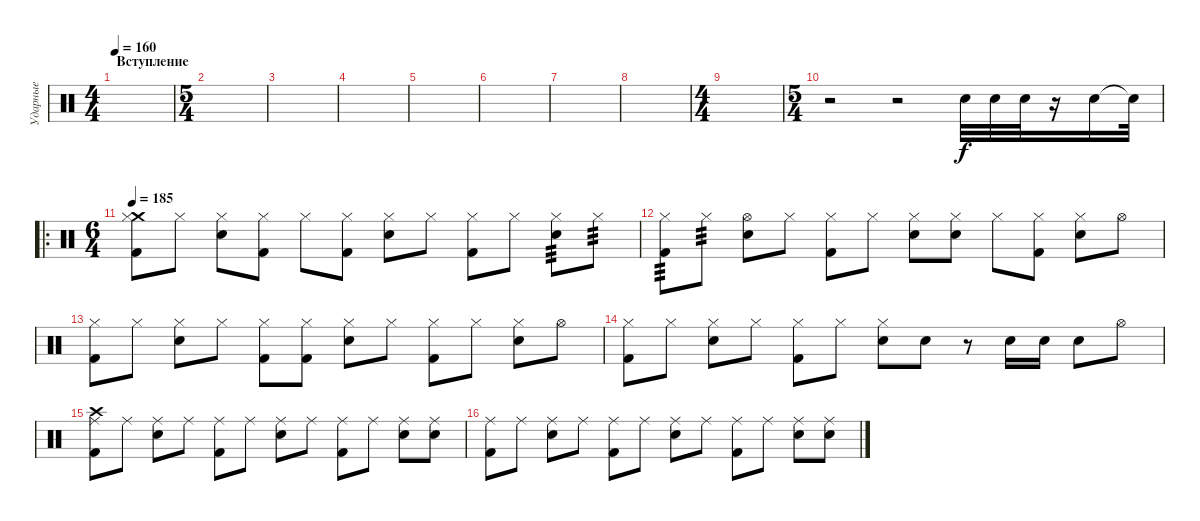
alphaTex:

\track ("Ударные" "Ударные") {instrument percussion}
\staff {score}
\articulation defaults
\ts (4 4)
\section ("" "Вступление")
\tempo 160
\clef neutral
\ks c
|
\ts (5 4)
|
|
|
|
|
|
|
\ts (4 4)
|
\ts (5 4)
r.2 r.2 "Electric Snare (hit)".32 "Electric Snare (hit)".32 "Electric Snare (hit)".32 r.16 "Electric Snare (hit)".16 "Snare (hit)"{t}.32 |
\ro
\ts (6 4)
\tempo 185
("Crash medium (hit)" "Hi-Hat (closed)" "Kick (hit) 2").8 "Hi-Hat (closed)".8 ("Hi-Hat (closed)" "Electric Snare (hit)").8 ("Hi-Hat (closed)" "Kick (hit) 2").8 "Hi-Hat (closed)".8 ("Hi-Hat (closed)" "Kick (hit) 2").8 ("Hi-Hat (closed)" "Electric Snare (hit)").8 "Hi-Hat (closed)".8 ("Hi-Hat (closed)" "Kick (hit) 2").8 "Hi-Hat (closed)".8 ("Hi-Hat (closed)" "Electric Snare (hit)").8{tp 3} "Hi-Hat (closed)".8{tp 3} |
("Hi-Hat (closed)" "Kick (hit) 2").8{tp 3} "Hi-Hat (closed)".8{tp 3} ("Hi-Hat (open)" "Electric Snare (hit)").8 "Hi-Hat (closed)".8 ("Hi-Hat (closed)" "Kick (hit) 2").8 "Hi-Hat (closed)".8 ("Hi-Hat (closed)" "Electric Snare (hit)").8 ("Hi-Hat (closed)" "Electric Snare (hit)").8 "Hi-Hat (closed)".8 ("Hi-Hat (closed)" "Kick (hit) 2").8 ("Hi-Hat (closed)" "Electric Snare (hit)").8 "Hi-Hat (open)".8 |
("Hi-Hat (closed)" "Kick (hit) 2").8 "Hi-Hat (closed)".8 ("Hi-Hat (closed)" "Electric Snare (hit)").8 "Hi-Hat (closed)".8 ("Hi-Hat (closed)" "Kick (hit) 2").8 ("Hi-Hat (closed)" "Kick (hit) 2").8 ("Hi-Hat (closed)" "Electric Snare (hit)").8 "Hi-Hat (closed)".8 ("Hi-Hat (closed)" "Kick (hit) 2").8 "Hi-Hat (closed)".8 ("Hi-Hat (closed)" "Electric Snare (hit)").8 "Hi-Hat (open)".8 |
("Hi-Hat (closed)" "Kick (hit) 2").8 "Hi-Hat (closed)".8 ("Hi-Hat (closed)" "Electric Snare (hit)").8 "Hi-Hat (closed)".8 ("Hi-Hat (closed)" "Kick (hit) 2").8 "Hi-Hat (closed)".8 ("Hi-Hat (closed)" "Electric Snare (hit)").8 "Electric Snare (hit)".8 r.8 "Electric Snare (hit)".16 "Electric Snare (hit)".16 "Electric Snare (hit)".8 "Hi-Hat (open)".8 |
("Crash high (hit)" "Ride (middle)" "Kick (hit) 2").8 "Ride (middle)".8 ("Ride (middle)" "Electric Snare (hit)").8 "Ride (middle)".8 ("Ride (middle)" "Kick (hit) 2").8 "Ride (middle)".8 ("Ride (middle)" "Electric Snare (hit)").8 "Ride (middle)".8 ("Ride (middle)" "Kick (hit) 2").8 "Ride (middle)".8 ("Ride (middle)" "Electric Snare (hit)").8 ("Ride (middle)" "Electric Snare (hit)").8 |
("Ride (middle)" "Kick (hit) 2").8 "Ride (middle)".8 ("Ride (middle)" "Electric Snare (hit)").8 "Ride (middle)".8 ("Ride (middle)" "Kick (hit) 2").8 "Ride (middle)".8 ("Ride (middle)" "Electric Snare (hit)").8 "Ride (middle)".8 ("Ride (middle)" "Kick (hit) 2").8 "Ride (middle)".8 ("Ride (middle)" "Electric Snare (hit)").8 ("Ride (middle)" "Electric Snare (hit)").8
